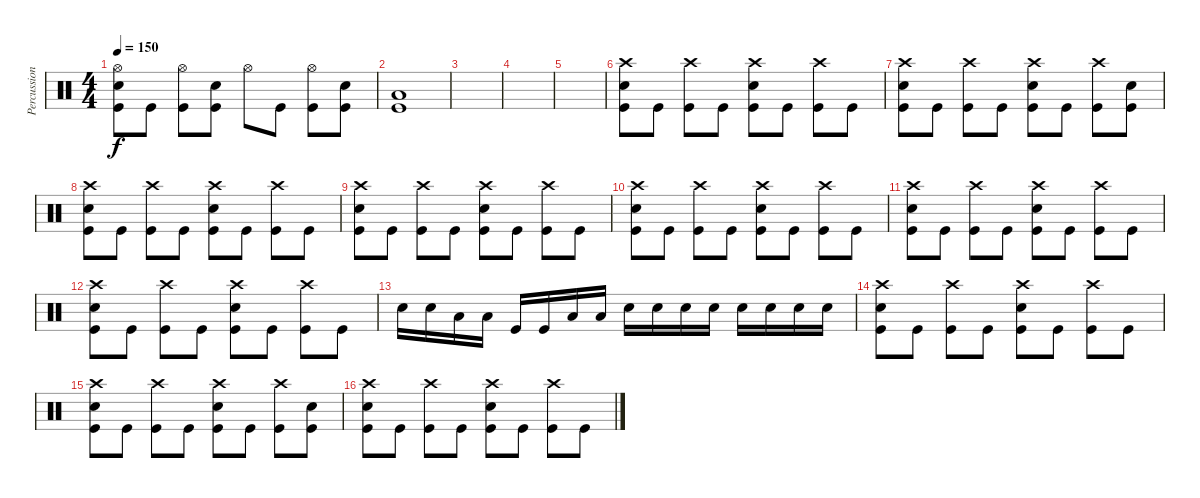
\track ("Percussion" "Percussion") {instrument percussion}
\staff {score}
\articulation defaults
\ts (4 4)
\tempo 150
\clef neutral
\ks c
("Kick (hit)" "Electric Snare (hit)" "Hi-Hat (open)").8{dy f} "Kick (hit)".8 ("Kick (hit)" "Hi-Hat (open)").8 ("Kick (hit)" "Electric Snare (hit)").8 "Hi-Hat (open)".8 "Kick (hit)".8 ("Kick (hit)" "Hi-Hat (open)").8 ("Kick (hit)" "Electric Snare (hit)").8 |
("Low Floor Tom (hit)" "Kick (hit)").1 |
|
|
|
("Kick (hit)" "Crash high (hit)" "Electric Snare (hit)").8 "Kick (hit)".8 ("Kick (hit)" "Crash high (hit)").8 "Kick (hit)".8 ("Kick (hit)" "Crash high (hit)" "Electric Snare (hit)").8 "Kick (hit)".8 ("Kick (hit)" "Crash high (hit)").8 "Kick (hit)".8 |
("Kick (hit)" "Crash high (hit)" "Electric Snare (hit)").8 "Kick (hit)".8 ("Kick (hit)" "Crash high (hit)").8 "Kick (hit)".8 ("Kick (hit)" "Crash high (hit)" "Electric Snare (hit)").8 "Kick (hit)".8 ("Kick (hit)" "Crash high (hit)").8 ("Kick (hit)" "Electric Snare (hit)").8 |
("Kick (hit)" "Crash high (hit)" "Electric Snare (hit)").8 "Kick (hit)".8 ("Kick (hit)" "Crash high (hit)").8 "Kick (hit)".8 ("Kick (hit)" "Crash high (hit)" "Electric Snare (hit)").8 "Kick (hit)".8 ("Kick (hit)" "Crash high (hit)").8 "Kick (hit)".8 |
("Kick (hit)" "Crash high (hit)" "Electric Snare (hit)").8 "Kick (hit)".8 ("Kick (hit)" "Crash high (hit)").8 "Kick (hit)".8 ("Kick (hit)" "Crash high (hit)" "Electric Snare (hit)").8 "Kick (hit)".8 ("Kick (hit)" "Crash high (hit)").8 "Kick (hit)".8 |
("Kick (hit)" "Crash high (hit)" "Electric Snare (hit)").8 "Kick (hit)".8 ("Kick (hit)" "Crash high (hit)").8 "Kick (hit)".8 ("Kick (hit)" "Crash high (hit)" "Electric Snare (hit)").8 "Kick (hit)".8 ("Kick (hit)" "Crash high (hit)").8 "Kick (hit)".8 |
("Kick (hit)" "Crash high (hit)" "Electric Snare (hit)").8 "Kick (hit)".8 ("Kick (hit)" "Crash high (hit)").8 "Kick (hit)".8 ("Kick (hit)" "Crash high (hit)" "Electric Snare (hit)").8 "Kick (hit)".8 ("Kick (hit)" "Crash high (hit)").8 "Kick (hit)".8 |
("Kick (hit)" "Crash high (hit)" "Electric Snare (hit)").8 "Kick (hit)".8 ("Kick (hit)" "Crash high (hit)").8 "Kick (hit)".8 ("Kick (hit)" "Crash high (hit)" "Electric Snare (hit)").8 "Kick (hit)".8 ("Kick (hit)" "Crash high (hit)").8 "Kick (hit)".8 |
"Electric Snare (hit)".16 "Electric Snare (hit)".16 "Low Floor Tom (hit)".16 "Low Floor Tom (hit)".16 "Kick (hit)".16 "Kick (hit)".16 "Low Tom (hit)".16 "Low Tom (hit)".16 "Electric Snare (hit)".16 "Electric Snare (hit)".16 "Electric Snare (hit)".16 "Electric Snare (hit)".16 "Electric Snare (hit)".16 "Electric Snare (hit)".16 "Electric Snare (hit)".16 "Electric Snare (hit)".16 |
("Kick (hit)" "Crash high (hit)" "Electric Snare (hit)").8 "Kick (hit)".8 ("Kick (hit)" "Crash high (hit)").8 "Kick (hit)".8 ("Kick (hit)" "Crash high (hit)" "Electric Snare (hit)").8 "Kick (hit)".8 ("Kick (hit)" "Crash high (hit)").8 "Kick (hit)".8 |
("Kick (hit)" "Crash high (hit)" "Electric Snare (hit)").8 "Kick (hit)".8 ("Kick (hit)" "Crash high (hit)").8 "Kick (hit)".8 ("Kick (hit)" "Crash high (hit)" "Electric Snare (hit)").8 "Kick (hit)".8 ("Kick (hit)" "Crash high (hit)").8 ("Kick (hit)" "Electric Snare (hit)").8 |
("Kick (hit)" "Crash high (hit)" "Electric Snare (hit)").8 "Kick (hit)".8 ("Kick (hit)" "Crash high (hit)").8 "Kick (hit)".8 ("Kick (hit)" "Crash high (hit)" "Electric Snare (hit)").8 "Kick (hit)".8 ("Kick (hit)" "Crash high (hit)").8 "Kick (hit)".8
